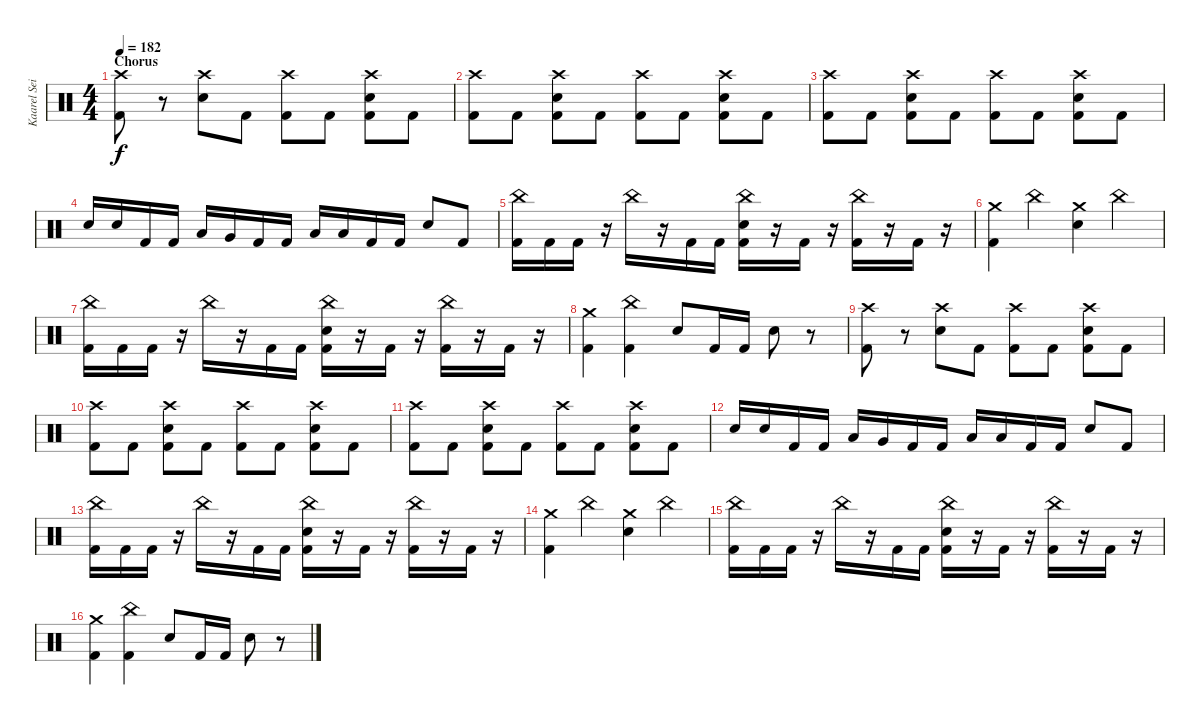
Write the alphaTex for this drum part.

\track ("Kaarel Sein" "Kaarel Sei") {instrument percussion}
\staff {score}
\articulation defaults
\ts (4 4)
\section ("" "Chorus")
\tempo 182
\clef neutral
\ks c
("Crash high (hit)" "Kick (hit) 2").8{dy f} r.8 ("Crash high (hit)" "Electric Snare (hit)").8 "Kick (hit) 2".8 ("Crash high (hit)" "Kick (hit) 2").8 "Kick (hit) 2".8 ("Crash high (hit)" "Electric Snare (hit)" "Kick (hit) 2").8 "Kick (hit) 2".8 |
("Crash high (hit)" "Kick (hit) 2").8 "Kick (hit) 2".8 ("Crash high (hit)" "Electric Snare (hit)" "Kick (hit) 2").8 "Kick (hit) 2".8 ("Crash high (hit)" "Kick (hit) 2").8 "Kick (hit) 2".8 ("Crash high (hit)" "Electric Snare (hit)" "Kick (hit) 2").8 "Kick (hit) 2".8 |
("Crash high (hit)" "Kick (hit) 2").8 "Kick (hit) 2".8 ("Crash high (hit)" "Electric Snare (hit)" "Kick (hit) 2").8 "Kick (hit) 2".8 ("Crash high (hit)" "Kick (hit) 2").8 "Kick (hit) 2".8 ("Crash high (hit)" "Electric Snare (hit)" "Kick (hit) 2").8 "Kick (hit) 2".8 |
"Electric Snare (hit)".16 "Electric Snare (hit)".16 "Kick (hit) 2".16 "Kick (hit) 2".16 "Low Tom (hit)".16 "Very Low Tom (hit)".16 "Kick (hit) 2".16 "Kick (hit) 2".16 "Low Floor Tom (hit)".16 "Low Floor Tom (hit)".16 "Kick (hit) 2".16 "Kick (hit) 2".16 "Electric Snare (hit)".8 "Kick (hit) 2".8 |
("China (hit)" "Kick (hit) 2").16 "Kick (hit) 2".16 "Kick (hit) 2".16 r.16 "China (hit)".16 r.16 "Kick (hit) 2".16 "Kick (hit) 2".16 ("China (hit)" "Electric Snare (hit)" "Kick (hit) 2").16 r.16 "Kick (hit) 2".16 r.16 ("China (hit)" "Kick (hit) 2").16 r.16 "Kick (hit) 2".16 r.16 |
("Crash medium (hit)" "Kick (hit) 2").4 "China (hit)".4 ("Crash medium (hit)" "Electric Snare (hit)").4 "China (hit)".4 |
("China (hit)" "Kick (hit) 2").16 "Kick (hit) 2".16 "Kick (hit) 2".16 r.16 "China (hit)".16 r.16 "Kick (hit) 2".16 "Kick (hit) 2".16 ("China (hit)" "Electric Snare (hit)" "Kick (hit) 2").16 r.16 "Kick (hit) 2".16 r.16 ("China (hit)" "Kick (hit) 2").16 r.16 "Kick (hit) 2".16 r.16 |
("Crash medium (hit)" "Kick (hit) 2").4 ("China (hit)" "Kick (hit) 2").4 "Electric Snare (hit)".8 "Kick (hit) 2".16 "Kick (hit) 2".16 "Electric Snare (hit)".8 r.8 |
("Crash high (hit)" "Kick (hit) 2").8 r.8 ("Crash high (hit)" "Electric Snare (hit)").8 "Kick (hit) 2".8 ("Crash high (hit)" "Kick (hit) 2").8 "Kick (hit) 2".8 ("Crash high (hit)" "Electric Snare (hit)" "Kick (hit) 2").8 "Kick (hit) 2".8 |
("Crash high (hit)" "Kick (hit) 2").8 "Kick (hit) 2".8 ("Crash high (hit)" "Electric Snare (hit)" "Kick (hit) 2").8 "Kick (hit) 2".8 ("Crash high (hit)" "Kick (hit) 2").8 "Kick (hit) 2".8 ("Crash high (hit)" "Electric Snare (hit)" "Kick (hit) 2").8 "Kick (hit) 2".8 |
("Crash high (hit)" "Kick (hit) 2").8 "Kick (hit) 2".8 ("Crash high (hit)" "Electric Snare (hit)" "Kick (hit) 2").8 "Kick (hit) 2".8 ("Crash high (hit)" "Kick (hit) 2").8 "Kick (hit) 2".8 ("Crash high (hit)" "Electric Snare (hit)" "Kick (hit) 2").8 "Kick (hit) 2".8 |
"Electric Snare (hit)".16 "Electric Snare (hit)".16 "Kick (hit) 2".16 "Kick (hit) 2".16 "Low Tom (hit)".16 "Very Low Tom (hit)".16 "Kick (hit) 2".16 "Kick (hit) 2".16 "Low Floor Tom (hit)".16 "Low Floor Tom (hit)".16 "Kick (hit) 2".16 "Kick (hit) 2".16 "Electric Snare (hit)".8 "Kick (hit) 2".8 |
("China (hit)" "Kick (hit) 2").16 "Kick (hit) 2".16 "Kick (hit) 2".16 r.16 "China (hit)".16 r.16 "Kick (hit) 2".16 "Kick (hit) 2".16 ("China (hit)" "Electric Snare (hit)" "Kick (hit) 2").16 r.16 "Kick (hit) 2".16 r.16 ("China (hit)" "Kick (hit) 2").16 r.16 "Kick (hit) 2".16 r.16 |
("Crash medium (hit)" "Kick (hit) 2").4 "China (hit)".4 ("Crash medium (hit)" "Electric Snare (hit)").4 "China (hit)".4 |
("China (hit)" "Kick (hit) 2").16 "Kick (hit) 2".16 "Kick (hit) 2".16 r.16 "China (hit)".16 r.16 "Kick (hit) 2".16 "Kick (hit) 2".16 ("China (hit)" "Electric Snare (hit)" "Kick (hit) 2").16 r.16 "Kick (hit) 2".16 r.16 ("China (hit)" "Kick (hit) 2").16 r.16 "Kick (hit) 2".16 r.16 |
("Crash medium (hit)" "Kick (hit) 2").4 ("China (hit)" "Kick (hit) 2").4 "Electric Snare (hit)".8 "Kick (hit) 2".16 "Kick (hit) 2".16 "Electric Snare (hit)".8 r.8
